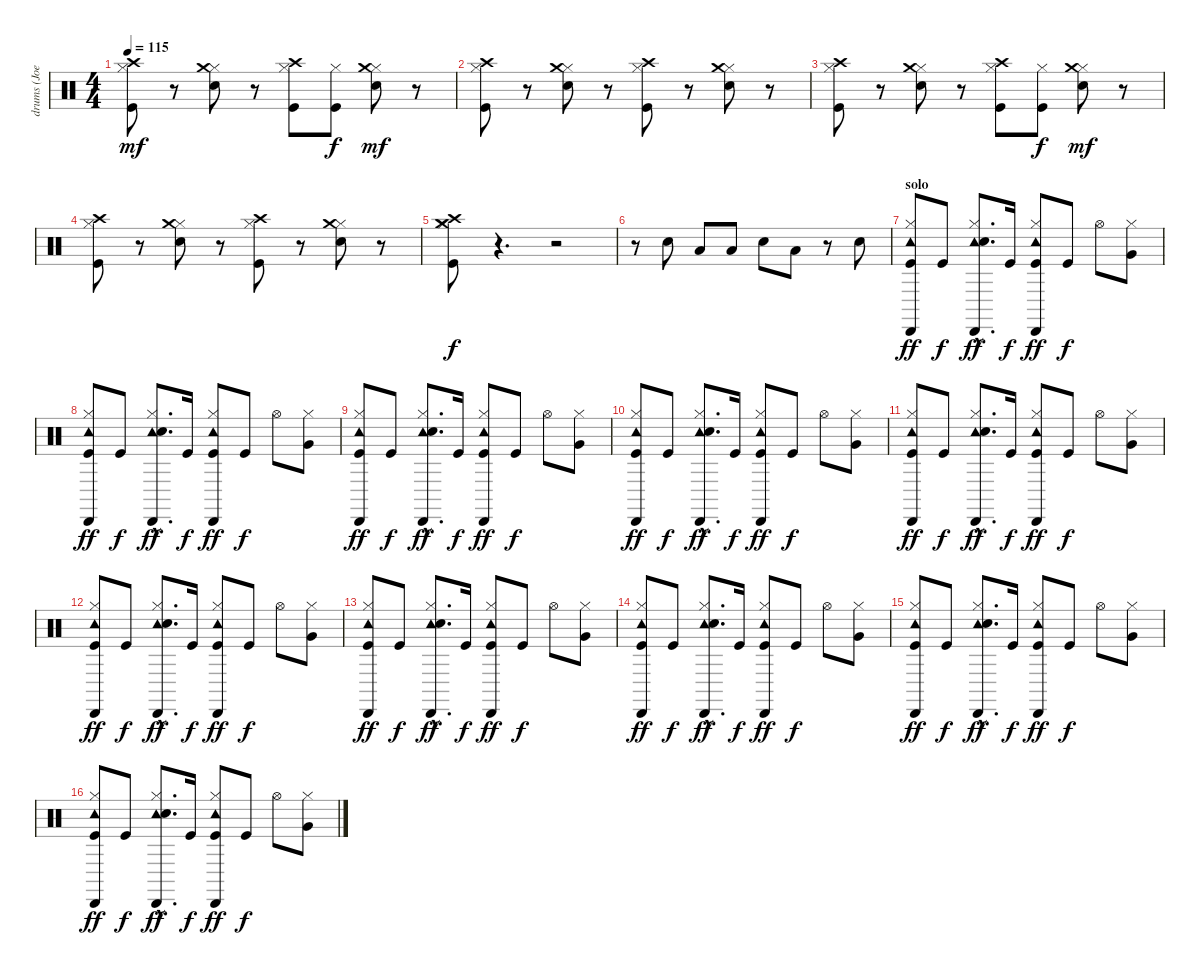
\track ("drums (Joey Castillo)" "drums (Joe") {instrument percussion}
\staff {score}
\articulation defaults
\ts (4 4)
\tempo 115
\clef neutral
\ks c
("Kick (hit)" "Hi-Hat (closed)" "Crash high (hit)").8{dy mf} r.8 ("Electric Snare (hit)" "Hi-Hat (closed)" "Crash medium (hit)").8 r.8 ("Kick (hit)" "Hi-Hat (closed)" "Crash high (hit)").8 ("Kick (hit)" "Hi-Hat (closed)").8{dy f} ("Electric Snare (hit)" "Hi-Hat (closed)" "Crash medium (hit)").8{dy mf} r.8 |
("Kick (hit)" "Hi-Hat (closed)" "Crash high (hit)").8 r.8 ("Electric Snare (hit)" "Hi-Hat (closed)" "Crash medium (hit)").8 r.8 ("Kick (hit)" "Hi-Hat (closed)" "Crash high (hit)").8 r.8 ("Electric Snare (hit)" "Hi-Hat (closed)" "Crash medium (hit)").8 r.8 |
("Kick (hit)" "Hi-Hat (closed)" "Crash high (hit)").8 r.8 ("Electric Snare (hit)" "Hi-Hat (closed)" "Crash medium (hit)").8 r.8 ("Kick (hit)" "Hi-Hat (closed)" "Crash high (hit)").8 ("Kick (hit)" "Hi-Hat (closed)").8{dy f} ("Electric Snare (hit)" "Hi-Hat (closed)" "Crash medium (hit)").8{dy mf} r.8 |
("Kick (hit)" "Hi-Hat (closed)" "Crash high (hit)").8 r.8 ("Electric Snare (hit)" "Hi-Hat (closed)" "Crash medium (hit)").8 r.8 ("Kick (hit)" "Hi-Hat (closed)" "Crash high (hit)").8 r.8 ("Electric Snare (hit)" "Hi-Hat (closed)" "Crash medium (hit)").8 r.8 |
("Kick (hit)" "Hi-Hat (closed)" "Crash medium (hit)" "Crash high (hit)").8{dy f} r.4{d} r.2 |
r.8 "Electric Snare (hit)".8 "Low Tom (hit)".8 "Low Tom (hit)".8 "Electric Snare (hit)".8 "Low Tom (hit)".8 r.8 "Electric Snare (hit)".8 |
\section ("" "solo")
("Tambourine (hit)" "Cabasa (hit)" "Kick (hit)" "Hi-Hat (closed)").8{dy ff} "Kick (hit)".8{dy f} ("Tambourine (hit)"{hac} "Cabasa (hit)"{hac} "Electric Snare (hit)"{hac} "Hi-Hat (closed)"{hac}).8{d dy ff} "Kick (hit)".16{dy f} ("Tambourine (hit)" "Cabasa (hit)" "Kick (hit)" "Hi-Hat (closed)").8{dy ff} "Kick (hit)".8{dy f} "Hi-Hat (open)".8 ("Very Low Tom (hit)" "Hi-Hat (closed)").8 |
("Tambourine (hit)" "Cabasa (hit)" "Kick (hit)" "Hi-Hat (closed)").8{dy ff} "Kick (hit)".8{dy f} ("Tambourine (hit)"{hac} "Cabasa (hit)"{hac} "Electric Snare (hit)"{hac} "Hi-Hat (closed)"{hac}).8{d dy ff} "Kick (hit)".16{dy f} ("Tambourine (hit)" "Cabasa (hit)" "Kick (hit)" "Hi-Hat (closed)").8{dy ff} "Kick (hit)".8{dy f} "Hi-Hat (open)".8 ("Very Low Tom (hit)" "Hi-Hat (closed)").8 |
("Tambourine (hit)" "Cabasa (hit)" "Kick (hit)" "Hi-Hat (closed)").8{dy ff} "Kick (hit)".8{dy f} ("Tambourine (hit)"{hac} "Cabasa (hit)"{hac} "Electric Snare (hit)"{hac} "Hi-Hat (closed)"{hac}).8{d dy ff} "Kick (hit)".16{dy f} ("Tambourine (hit)" "Cabasa (hit)" "Kick (hit)" "Hi-Hat (closed)").8{dy ff} "Kick (hit)".8{dy f} "Hi-Hat (open)".8 ("Very Low Tom (hit)" "Hi-Hat (closed)").8 |
("Tambourine (hit)" "Cabasa (hit)" "Kick (hit)" "Hi-Hat (closed)").8{dy ff} "Kick (hit)".8{dy f} ("Tambourine (hit)"{hac} "Cabasa (hit)"{hac} "Electric Snare (hit)"{hac} "Hi-Hat (closed)"{hac}).8{d dy ff} "Kick (hit)".16{dy f} ("Tambourine (hit)" "Cabasa (hit)" "Kick (hit)" "Hi-Hat (closed)").8{dy ff} "Kick (hit)".8{dy f} "Hi-Hat (open)".8 ("Very Low Tom (hit)" "Hi-Hat (closed)").8 |
("Tambourine (hit)" "Cabasa (hit)" "Kick (hit)" "Hi-Hat (closed)").8{dy ff} "Kick (hit)".8{dy f} ("Tambourine (hit)"{hac} "Cabasa (hit)"{hac} "Electric Snare (hit)"{hac} "Hi-Hat (closed)"{hac}).8{d dy ff} "Kick (hit)".16{dy f} ("Tambourine (hit)" "Cabasa (hit)" "Kick (hit)" "Hi-Hat (closed)").8{dy ff} "Kick (hit)".8{dy f} "Hi-Hat (open)".8 ("Very Low Tom (hit)" "Hi-Hat (closed)").8 |
("Tambourine (hit)" "Cabasa (hit)" "Kick (hit)" "Hi-Hat (closed)").8{dy ff} "Kick (hit)".8{dy f} ("Tambourine (hit)"{hac} "Cabasa (hit)"{hac} "Electric Snare (hit)"{hac} "Hi-Hat (closed)"{hac}).8{d dy ff} "Kick (hit)".16{dy f} ("Tambourine (hit)" "Cabasa (hit)" "Kick (hit)" "Hi-Hat (closed)").8{dy ff} "Kick (hit)".8{dy f} "Hi-Hat (open)".8 ("Very Low Tom (hit)" "Hi-Hat (closed)").8 |
("Tambourine (hit)" "Cabasa (hit)" "Kick (hit)" "Hi-Hat (closed)").8{dy ff} "Kick (hit)".8{dy f} ("Tambourine (hit)"{hac} "Cabasa (hit)"{hac} "Electric Snare (hit)"{hac} "Hi-Hat (closed)"{hac}).8{d dy ff} "Kick (hit)".16{dy f} ("Tambourine (hit)" "Cabasa (hit)" "Kick (hit)" "Hi-Hat (closed)").8{dy ff} "Kick (hit)".8{dy f} "Hi-Hat (open)".8 ("Very Low Tom (hit)" "Hi-Hat (closed)").8 |
("Tambourine (hit)" "Cabasa (hit)" "Kick (hit)" "Hi-Hat (closed)").8{dy ff} "Kick (hit)".8{dy f} ("Tambourine (hit)"{hac} "Cabasa (hit)"{hac} "Electric Snare (hit)"{hac} "Hi-Hat (closed)"{hac}).8{d dy ff} "Kick (hit)".16{dy f} ("Tambourine (hit)" "Cabasa (hit)" "Kick (hit)" "Hi-Hat (closed)").8{dy ff} "Kick (hit)".8{dy f} "Hi-Hat (open)".8 ("Very Low Tom (hit)" "Hi-Hat (closed)").8 |
\section ("" "")
("Tambourine (hit)" "Cabasa (hit)" "Kick (hit)" "Hi-Hat (closed)").8{dy ff} "Kick (hit)".8{dy f} ("Tambourine (hit)"{hac} "Cabasa (hit)"{hac} "Electric Snare (hit)"{hac} "Hi-Hat (closed)"{hac}).8{d dy ff} "Kick (hit)".16{dy f} ("Tambourine (hit)" "Cabasa (hit)" "Kick (hit)" "Hi-Hat (closed)").8{dy ff} "Kick (hit)".8{dy f} "Hi-Hat (open)".8 ("Very Low Tom (hit)" "Hi-Hat (closed)").8 |
("Tambourine (hit)" "Cabasa (hit)" "Kick (hit)" "Hi-Hat (closed)").8{dy ff} "Kick (hit)".8{dy f} ("Tambourine (hit)"{hac} "Cabasa (hit)"{hac} "Electric Snare (hit)"{hac} "Hi-Hat (closed)"{hac}).8{d dy ff} "Kick (hit)".16{dy f} ("Tambourine (hit)" "Cabasa (hit)" "Kick (hit)" "Hi-Hat (closed)").8{dy ff} "Kick (hit)".8{dy f} "Hi-Hat (open)".8 ("Very Low Tom (hit)" "Hi-Hat (closed)").8
